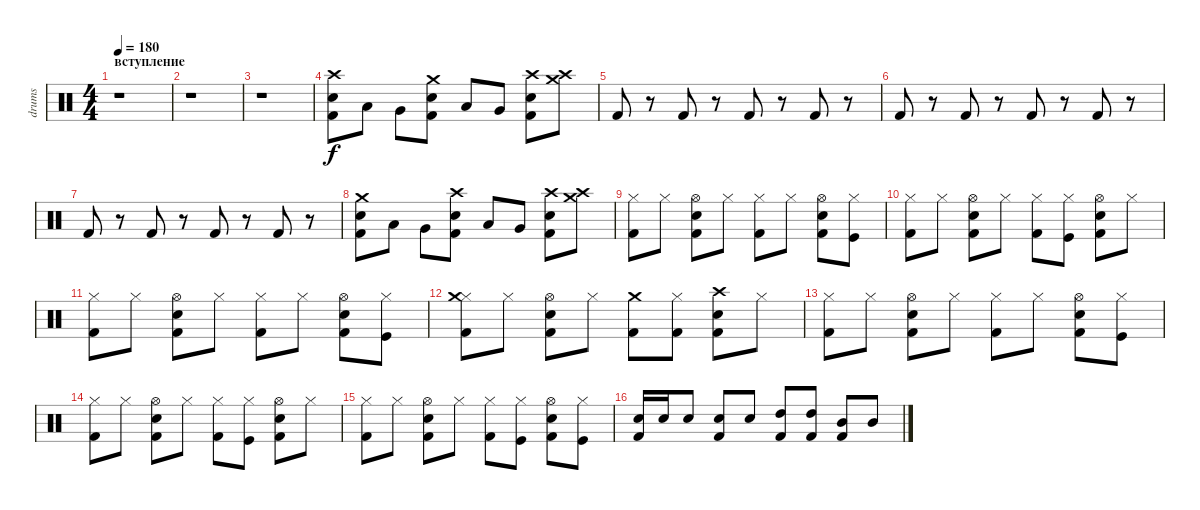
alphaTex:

\track ("drums" "drums") {instrument percussion}
\staff {score}
\articulation defaults
\ts (4 4)
\section ("" "вступление")
\tempo 180
\clef neutral
\ks c
r.1{dy f} |
r.1 |
r.1 |
("Crash high (hit)" "Electric Snare (hit)" "Kick (hit) 2").8 "Low Tom (hit)".8 "Very Low Tom (hit)".8 ("Crash medium (hit)" "Electric Snare (hit)" "Kick (hit) 2").8 "Low Tom (hit)".8 "Very Low Tom (hit)".8 ("Crash high (hit)" "Electric Snare (hit)" "Kick (hit) 2").8 ("Crash medium (hit)" "Crash high (hit)").8 |
"Kick (hit) 2".8 r.8 "Kick (hit) 2".8 r.8 "Kick (hit) 2".8 r.8 "Kick (hit) 2".8 r.8 |
"Kick (hit) 2".8 r.8 "Kick (hit) 2".8 r.8 "Kick (hit) 2".8 r.8 "Kick (hit) 2".8 r.8 |
"Kick (hit) 2".8 r.8 "Kick (hit) 2".8 r.8 "Kick (hit) 2".8 r.8 "Kick (hit) 2".8 r.8 |
("Crash medium (hit)" "Electric Snare (hit)" "Kick (hit) 2").8 "Low Tom (hit)".8 "Very Low Tom (hit)".8 ("Crash high (hit)" "Electric Snare (hit)" "Kick (hit) 2").8 "Low Tom (hit)".8 "Very Low Tom (hit)".8 ("Crash high (hit)" "Electric Snare (hit)" "Kick (hit) 2").8 ("Crash medium (hit)" "Crash high (hit)").8 |
("Hi-Hat (closed)" "Kick (hit) 2").8 "Hi-Hat (closed)".8 ("Hi-Hat (open)" "Electric Snare (hit)" "Kick (hit) 2").8 "Hi-Hat (closed)".8 ("Hi-Hat (closed)" "Kick (hit) 2").8 "Hi-Hat (closed)".8 ("Hi-Hat (open)" "Electric Snare (hit)" "Kick (hit) 2").8 ("Hi-Hat (closed)" "Kick (hit)").8 |
("Hi-Hat (closed)" "Kick (hit) 2").8 "Hi-Hat (closed)".8 ("Hi-Hat (open)" "Electric Snare (hit)" "Kick (hit) 2").8 "Hi-Hat (closed)".8 ("Hi-Hat (closed)" "Kick (hit) 2").8 ("Hi-Hat (closed)" "Kick (hit)").8 ("Hi-Hat (open)" "Electric Snare (hit)" "Kick (hit) 2").8 "Hi-Hat (closed)".8 |
("Hi-Hat (closed)" "Kick (hit) 2").8 "Hi-Hat (closed)".8 ("Hi-Hat (open)" "Electric Snare (hit)" "Kick (hit) 2").8 "Hi-Hat (closed)".8 ("Hi-Hat (closed)" "Kick (hit) 2").8 "Hi-Hat (closed)".8 ("Hi-Hat (open)" "Electric Snare (hit)" "Kick (hit) 2").8 ("Hi-Hat (closed)" "Kick (hit)").8 |
("Hi-Hat (closed)" "Crash medium (hit)" "Kick (hit) 2").8 "Hi-Hat (closed)".8 ("Hi-Hat (open)" "Electric Snare (hit)" "Kick (hit) 2").8 "Hi-Hat (closed)".8 ("Crash medium (hit)" "Kick (hit) 2").8 ("Hi-Hat (closed)" "Kick (hit) 2").8 ("Crash high (hit)" "Electric Snare (hit)" "Kick (hit) 2").8 "Hi-Hat (closed)".8 |
("Hi-Hat (closed)" "Kick (hit) 2").8 "Hi-Hat (closed)".8 ("Hi-Hat (open)" "Electric Snare (hit)" "Kick (hit) 2").8 "Hi-Hat (closed)".8 ("Hi-Hat (closed)" "Kick (hit) 2").8 "Hi-Hat (closed)".8 ("Hi-Hat (open)" "Electric Snare (hit)" "Kick (hit) 2").8 ("Hi-Hat (closed)" "Kick (hit)").8 |
("Hi-Hat (closed)" "Kick (hit) 2").8 "Hi-Hat (closed)".8 ("Hi-Hat (open)" "Electric Snare (hit)" "Kick (hit) 2").8 "Hi-Hat (closed)".8 ("Hi-Hat (closed)" "Kick (hit) 2").8 ("Hi-Hat (closed)" "Kick (hit)").8 ("Hi-Hat (open)" "Electric Snare (hit)" "Kick (hit) 2").8 "Hi-Hat (closed)".8 |
("Hi-Hat (closed)" "Kick (hit) 2").8 "Hi-Hat (closed)".8 ("Hi-Hat (open)" "Electric Snare (hit)" "Kick (hit) 2").8 "Hi-Hat (closed)".8 ("Hi-Hat (closed)" "Kick (hit) 2").8 ("Hi-Hat (closed)" "Kick (hit)").8 ("Hi-Hat (open)" "Electric Snare (hit)" "Kick (hit) 2").8 ("Hi-Hat (closed)" "Kick (hit)").8 |
("Electric Snare (hit)" "Kick (hit) 2").16 "Electric Snare (hit)".16 "Electric Snare (hit)".8 ("Electric Snare (hit)" "Kick (hit) 2").8 "Electric Snare (hit)".8 ("High Tom (hit)" "Kick (hit) 2").8 ("High Tom (hit)" "Kick (hit) 2").8 ("Mid Tom (hit)" "Kick (hit) 2").8 "Mid Tom (hit)".8
